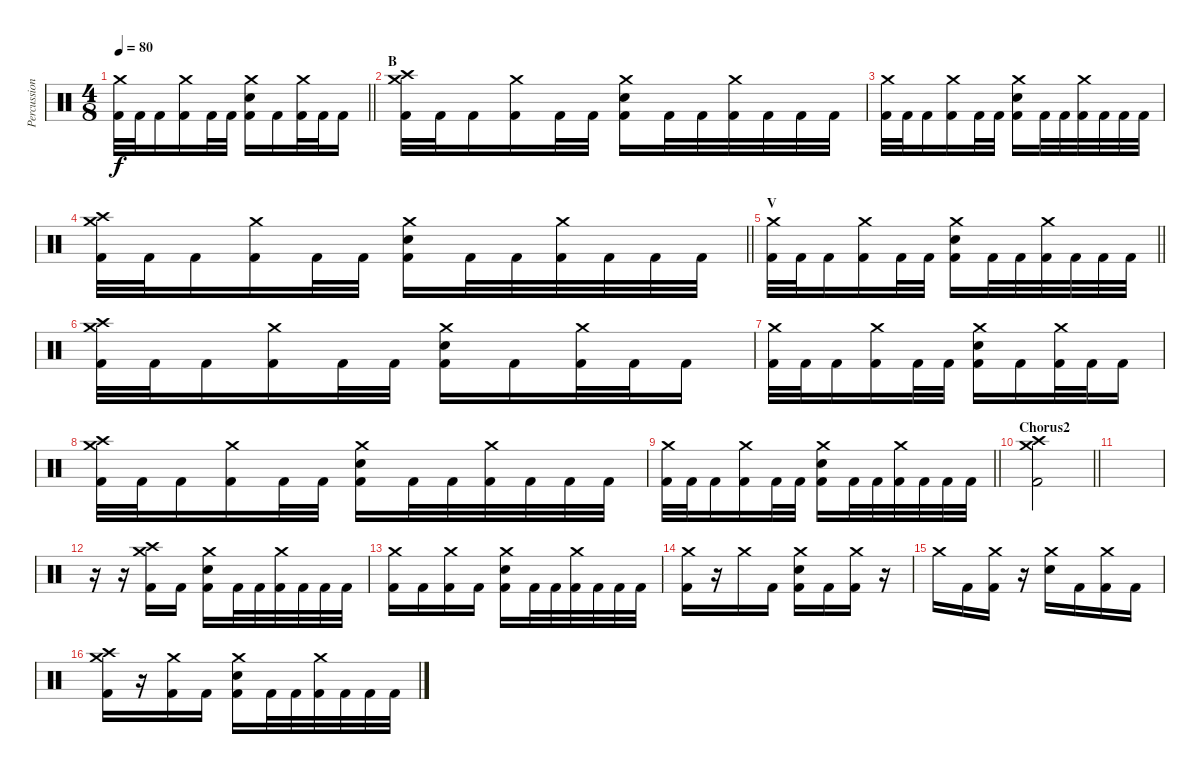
\track ("Percussion" "Percussion") {instrument percussion}
\staff {score}
\articulation defaults
\ts (4 8)
\tempo 80
\clef neutral
\barLineRight lightlight
\ks c
("Crash medium (hit)" "Kick (hit) 2").32{dy f} "Kick (hit) 2".32 "Kick (hit) 2".16 ("Crash medium (hit)" "Kick (hit) 2").16 "Kick (hit) 2".32 "Kick (hit) 2".32 ("Crash medium (hit)" "Snare (hit) 2" "Kick (hit) 2").16 "Kick (hit) 2".16 ("Crash medium (hit)" "Kick (hit) 2").32 "Kick (hit) 2".32 "Kick (hit) 2".16 |
\section ("" "B")
("Crash high (hit)" "Crash medium (hit)" "Kick (hit) 2").32 "Kick (hit) 2".32 "Kick (hit) 2".16 ("Crash medium (hit)" "Kick (hit) 2").16 "Kick (hit) 2".32 "Kick (hit) 2".32 ("Crash medium (hit)" "Snare (hit) 2" "Kick (hit) 2").16 "Kick (hit) 2".32 "Kick (hit) 2".32 ("Crash medium (hit)" "Kick (hit) 2").32 "Kick (hit) 2".32 "Kick (hit) 2".32 "Kick (hit) 2".32 |
("Crash medium (hit)" "Kick (hit) 2").32 "Kick (hit) 2".32 "Kick (hit) 2".16 ("Crash medium (hit)" "Kick (hit) 2").16 "Kick (hit) 2".32 "Kick (hit) 2".32 ("Crash medium (hit)" "Snare (hit) 2" "Kick (hit) 2").16 "Kick (hit) 2".32 "Kick (hit) 2".32 ("Crash medium (hit)" "Kick (hit) 2").32 "Kick (hit) 2".32 "Kick (hit) 2".32 "Kick (hit) 2".32 |
\barLineRight lightlight
("Crash high (hit)" "Crash medium (hit)" "Kick (hit) 2").32 "Kick (hit) 2".32 "Kick (hit) 2".16 ("Crash medium (hit)" "Kick (hit) 2").16 "Kick (hit) 2".32 "Kick (hit) 2".32 ("Crash medium (hit)" "Snare (hit) 2" "Kick (hit) 2").16 "Kick (hit) 2".32 "Kick (hit) 2".32 ("Crash medium (hit)" "Kick (hit) 2").32 "Kick (hit) 2".32 "Kick (hit) 2".32 "Kick (hit) 2".32 |
\section ("" "V")
\barLineRight lightlight
("Crash medium (hit)" "Kick (hit) 2").32 "Kick (hit) 2".32 "Kick (hit) 2".16 ("Crash medium (hit)" "Kick (hit) 2").16 "Kick (hit) 2".32 "Kick (hit) 2".32 ("Crash medium (hit)" "Snare (hit) 2" "Kick (hit) 2").16 "Kick (hit) 2".32 "Kick (hit) 2".32 ("Crash medium (hit)" "Kick (hit) 2").32 "Kick (hit) 2".32 "Kick (hit) 2".32 "Kick (hit) 2".32 |
("Crash high (hit)" "Crash medium (hit)" "Kick (hit) 2").32 "Kick (hit) 2".32 "Kick (hit) 2".16 ("Crash medium (hit)" "Kick (hit) 2").16 "Kick (hit) 2".32 "Kick (hit) 2".32 ("Crash medium (hit)" "Snare (hit) 2" "Kick (hit) 2").16 "Kick (hit) 2".16 ("Crash medium (hit)" "Kick (hit) 2").32 "Kick (hit) 2".32 "Kick (hit) 2".16 |
("Crash medium (hit)" "Kick (hit) 2").32 "Kick (hit) 2".32 "Kick (hit) 2".16 ("Crash medium (hit)" "Kick (hit) 2").16 "Kick (hit) 2".32 "Kick (hit) 2".32 ("Crash medium (hit)" "Snare (hit) 2" "Kick (hit) 2").16 "Kick (hit) 2".16 ("Crash medium (hit)" "Kick (hit) 2").32 "Kick (hit) 2".32 "Kick (hit) 2".16 |
("Crash high (hit)" "Crash medium (hit)" "Kick (hit) 2").32 "Kick (hit) 2".32 "Kick (hit) 2".16 ("Crash medium (hit)" "Kick (hit) 2").16 "Kick (hit) 2".32 "Kick (hit) 2".32 ("Crash medium (hit)" "Snare (hit) 2" "Kick (hit) 2").16 "Kick (hit) 2".32 "Kick (hit) 2".32 ("Crash medium (hit)" "Kick (hit) 2").32 "Kick (hit) 2".32 "Kick (hit) 2".32 "Kick (hit) 2".32 |
\barLineRight lightlight
("Crash medium (hit)" "Kick (hit) 2").32 "Kick (hit) 2".32 "Kick (hit) 2".16 ("Crash medium (hit)" "Kick (hit) 2").16 "Kick (hit) 2".32 "Kick (hit) 2".32 ("Crash medium (hit)" "Snare (hit) 2" "Kick (hit) 2").16 "Kick (hit) 2".32 "Kick (hit) 2".32 ("Crash medium (hit)" "Kick (hit) 2").32 "Kick (hit) 2".32 "Kick (hit) 2".32 "Kick (hit) 2".32 |
\section ("" "Chorus2")
\barLineRight lightlight
("Crash high (hit)" "Crash medium (hit)" "Kick (hit) 2").2 |
|
r.16 r.16 ("Crash high (hit)" "Crash medium (hit)" "Kick (hit) 2").16 "Kick (hit) 2".16 ("Crash medium (hit)" "Snare (hit) 2" "Kick (hit) 2").16 "Kick (hit) 2".32 "Kick (hit) 2".32 ("Crash medium (hit)" "Kick (hit) 2").32 "Kick (hit) 2".32 "Kick (hit) 2".32 "Kick (hit) 2".32 |
("Crash medium (hit)" "Kick (hit) 2").16 "Kick (hit) 2".16 ("Crash medium (hit)" "Kick (hit) 2").16 "Kick (hit) 2".16 ("Crash medium (hit)" "Snare (hit) 2" "Kick (hit) 2").16 "Kick (hit) 2".32 "Kick (hit) 2".32 ("Crash medium (hit)" "Kick (hit) 2").32 "Kick (hit) 2".32 "Kick (hit) 2".32 "Kick (hit) 2".32 |
("Crash medium (hit)" "Kick (hit) 2").16 r.16 "Crash medium (hit)".16 "Kick (hit) 2".16 ("Crash medium (hit)" "Snare (hit) 2" "Kick (hit) 2").16 "Kick (hit) 2".16 ("Crash medium (hit)" "Kick (hit) 2").16 r.16 |
"Crash medium (hit)".16 "Kick (hit) 2".16 ("Crash medium (hit)" "Kick (hit) 2").16 r.16 ("Crash medium (hit)" "Snare (hit) 2").16 "Kick (hit) 2".16 ("Crash medium (hit)" "Kick (hit) 2").16 "Kick (hit) 2".16 |
("Crash high (hit)" "Crash medium (hit)" "Kick (hit) 2").16 r.16 ("Crash medium (hit)" "Kick (hit) 2").16 "Kick (hit) 2".16 ("Crash medium (hit)" "Snare (hit) 2" "Kick (hit) 2").16 "Kick (hit) 2".32 "Kick (hit) 2".32 ("Crash medium (hit)" "Kick (hit) 2").32 "Kick (hit) 2".32 "Kick (hit) 2".32 "Kick (hit) 2".32
